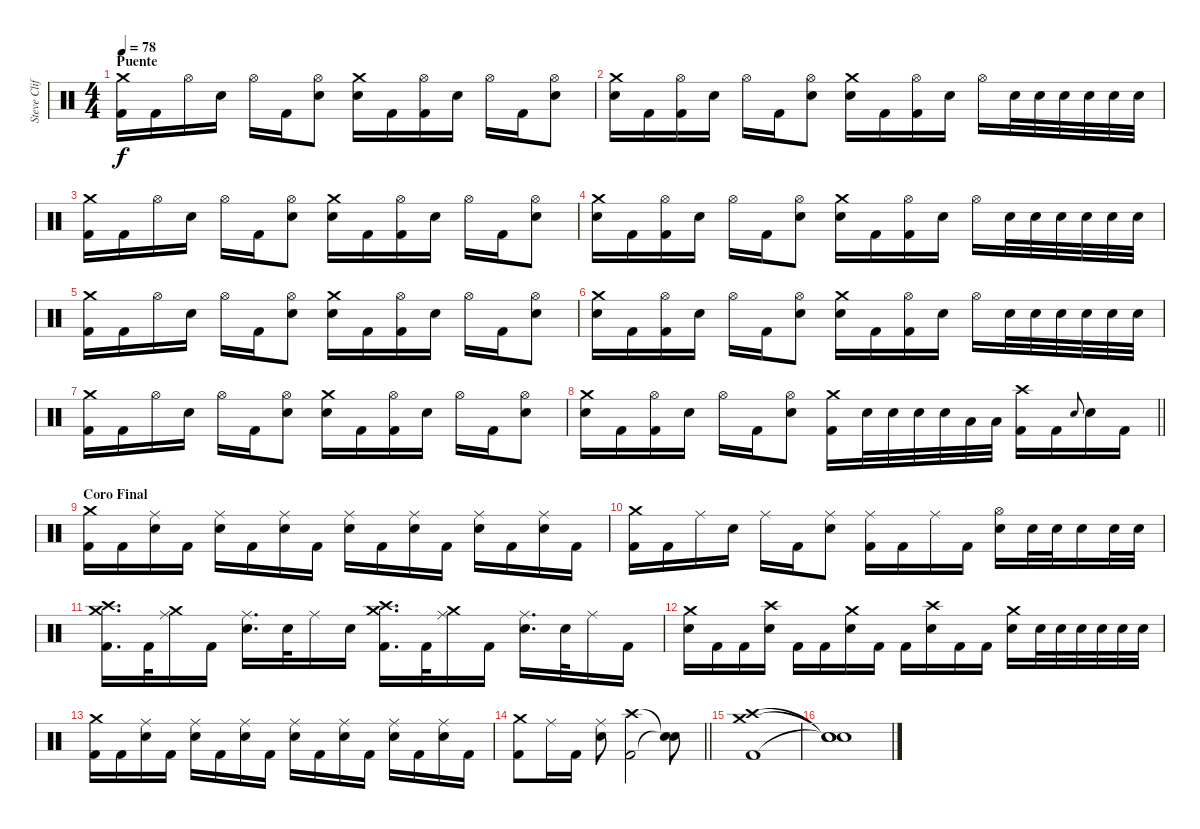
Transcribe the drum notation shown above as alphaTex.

\track ("Steve Clifford" "Steve Clif") {instrument percussion}
\staff
\articulation defaults
\ts (4 4)
\section ("" "Puente")
\tempo 78
\clef neutral
\ks c
("Crash medium (hit)" "Kick (hit) 2").16{dy f} "Kick (hit) 2".16 "Hi-Hat (open)".16 "Electric Snare (hit)".16 "Hi-Hat (open)".16 "Kick (hit) 2".16 ("Hi-Hat (open)" "Electric Snare (hit)").8 ("Crash medium (hit)" "Electric Snare (hit)").16 "Kick (hit) 2".16 ("Hi-Hat (open)" "Kick (hit) 2").16 "Electric Snare (hit)".16 "Hi-Hat (open)".16 "Kick (hit) 2".16 ("Hi-Hat (open)" "Electric Snare (hit)").8 |
("Crash medium (hit)" "Electric Snare (hit)").16 "Kick (hit) 2".16 ("Hi-Hat (open)" "Kick (hit) 2").16 "Electric Snare (hit)".16 "Hi-Hat (open)".16 "Kick (hit) 2".16 ("Hi-Hat (open)" "Electric Snare (hit)").8 ("Crash medium (hit)" "Electric Snare (hit)").16 "Kick (hit) 2".16 ("Hi-Hat (open)" "Kick (hit) 2").16 "Electric Snare (hit)".16 "Hi-Hat (open)".16 "Electric Snare (hit)".32 "Electric Snare (hit)".32 "Electric Snare (hit)".32 "Electric Snare (hit)".32 "Electric Snare (hit)".32 "Electric Snare (hit)".32 |
("Crash medium (hit)" "Kick (hit) 2").16 "Kick (hit) 2".16 "Hi-Hat (open)".16 "Electric Snare (hit)".16 "Hi-Hat (open)".16 "Kick (hit) 2".16 ("Hi-Hat (open)" "Electric Snare (hit)").8 ("Crash medium (hit)" "Electric Snare (hit)").16 "Kick (hit) 2".16 ("Hi-Hat (open)" "Kick (hit) 2").16 "Electric Snare (hit)".16 "Hi-Hat (open)".16 "Kick (hit) 2".16 ("Hi-Hat (open)" "Electric Snare (hit)").8 |
("Crash medium (hit)" "Electric Snare (hit)").16 "Kick (hit) 2".16 ("Hi-Hat (open)" "Kick (hit) 2").16 "Electric Snare (hit)".16 "Hi-Hat (open)".16 "Kick (hit) 2".16 ("Hi-Hat (open)" "Electric Snare (hit)").8 ("Crash medium (hit)" "Electric Snare (hit)").16 "Kick (hit) 2".16 ("Hi-Hat (open)" "Kick (hit) 2").16 "Electric Snare (hit)".16 "Hi-Hat (open)".16 "Electric Snare (hit)".32 "Electric Snare (hit)".32 "Electric Snare (hit)".32 "Electric Snare (hit)".32 "Electric Snare (hit)".32 "Electric Snare (hit)".32 |
("Crash medium (hit)" "Kick (hit) 2").16 "Kick (hit) 2".16 "Hi-Hat (open)".16 "Electric Snare (hit)".16 "Hi-Hat (open)".16 "Kick (hit) 2".16 ("Hi-Hat (open)" "Electric Snare (hit)").8 ("Crash medium (hit)" "Electric Snare (hit)").16 "Kick (hit) 2".16 ("Hi-Hat (open)" "Kick (hit) 2").16 "Electric Snare (hit)".16 "Hi-Hat (open)".16 "Kick (hit) 2".16 ("Hi-Hat (open)" "Electric Snare (hit)").8 |
("Crash medium (hit)" "Electric Snare (hit)").16 "Kick (hit) 2".16 ("Hi-Hat (open)" "Kick (hit) 2").16 "Electric Snare (hit)".16 "Hi-Hat (open)".16 "Kick (hit) 2".16 ("Hi-Hat (open)" "Electric Snare (hit)").8 ("Crash medium (hit)" "Electric Snare (hit)").16 "Kick (hit) 2".16 ("Hi-Hat (open)" "Kick (hit) 2").16 "Electric Snare (hit)".16 "Hi-Hat (open)".16 "Electric Snare (hit)".32 "Electric Snare (hit)".32 "Electric Snare (hit)".32 "Electric Snare (hit)".32 "Electric Snare (hit)".32 "Electric Snare (hit)".32 |
("Crash medium (hit)" "Kick (hit) 2").16 "Kick (hit) 2".16 "Hi-Hat (open)".16 "Electric Snare (hit)".16 "Hi-Hat (open)".16 "Kick (hit) 2".16 ("Hi-Hat (open)" "Electric Snare (hit)").8 ("Crash medium (hit)" "Electric Snare (hit)").16 "Kick (hit) 2".16 ("Hi-Hat (open)" "Kick (hit) 2").16 "Electric Snare (hit)".16 "Hi-Hat (open)".16 "Kick (hit) 2".16 ("Hi-Hat (open)" "Electric Snare (hit)").8 |
\barLineRight lightlight
("Crash medium (hit)" "Electric Snare (hit)").16 "Kick (hit) 2".16 ("Hi-Hat (open)" "Kick (hit) 2").16 "Electric Snare (hit)".16 "Hi-Hat (open)".16 "Kick (hit) 2".16 ("Hi-Hat (open)" "Electric Snare (hit)").8 ("Crash medium (hit)" "Kick (hit) 2").16 "Electric Snare (hit)".32 "Electric Snare (hit)".32 "Electric Snare (hit)".32 "Electric Snare (hit)".32 "Low Tom (hit)".32 "Low Tom (hit)".32 ("Crash high (hit)" "Kick (hit) 2").16 "Kick (hit) 2".16 "Electric Snare (hit)".8{gr onbeat} "Electric Snare (hit)".16 "Kick (hit) 2".16 |
\section ("" "Coro Final")
("Crash medium (hit)" "Kick (hit) 2").16 "Kick (hit) 2".16 ("Ride (middle)" "Electric Snare (hit)").16 "Kick (hit) 2".16 ("Ride (middle)" "Electric Snare (hit)").16 "Kick (hit) 2".16 ("Ride (middle)" "Electric Snare (hit)").16 "Kick (hit) 2".16 ("Ride (middle)" "Electric Snare (hit)").16 "Kick (hit) 2".16 ("Ride (middle)" "Electric Snare (hit)").16 "Kick (hit) 2".16 ("Ride (middle)" "Electric Snare (hit)").16 "Kick (hit) 2".16 ("Ride (middle)" "Electric Snare (hit)").16 "Kick (hit) 2".16 |
("Crash medium (hit)" "Kick (hit) 2").16 "Kick (hit) 2".16 "Ride (middle)".16 "Electric Snare (hit)".16 "Ride (middle)".16 "Kick (hit) 2".16 ("Ride (middle)" "Electric Snare (hit)").8 ("Ride (middle)" "Kick (hit) 2").16 "Kick (hit) 2".16 "Ride (middle)".16 "Kick (hit) 2".16 ("Hi-Hat (open)" "Electric Snare (hit)").16 "Electric Snare (hit)".32 "Electric Snare (hit)".32 "Electric Snare (hit)".16 "Electric Snare (hit)".32 "Electric Snare (hit)".32 |
("Crash medium (hit)" "Crash high (hit)" "Kick (hit) 2").16{d} "Kick (hit) 2".32 ("Crash medium (hit)" "Ride (middle)").16 "Kick (hit) 2".16 ("Ride (middle)" "Electric Snare (hit)").16{d} "Electric Snare (hit)".32 "Ride (middle)".16 "Electric Snare (hit)".16 ("Crash medium (hit)" "Crash high (hit)" "Kick (hit) 2").16{d} "Kick (hit) 2".32 ("Crash medium (hit)" "Ride (middle)").16 "Kick (hit) 2".16 ("Ride (middle)" "Electric Snare (hit)").16{d} "Electric Snare (hit)".32 "Ride (middle)".16 "Kick (hit) 2".16 |
("Crash medium (hit)" "Electric Snare (hit)").16 "Kick (hit) 2".16 "Kick (hit) 2".16 ("Crash high (hit)" "Electric Snare (hit)").16 "Kick (hit) 2".16 "Kick (hit) 2".16 ("Crash medium (hit)" "Electric Snare (hit)").16 "Kick (hit) 2".16 "Kick (hit) 2".16 ("Crash high (hit)" "Electric Snare (hit)").16 "Kick (hit) 2".16 "Kick (hit) 2".16 ("Crash medium (hit)" "Electric Snare (hit)").16 "Electric Snare (hit)".32 "Electric Snare (hit)".32 "Electric Snare (hit)".32 "Electric Snare (hit)".32 "Electric Snare (hit)".32 "Electric Snare (hit)".32 |
("Crash medium (hit)" "Kick (hit) 2").16 "Kick (hit) 2".16 ("Ride (middle)" "Electric Snare (hit)").16 "Kick (hit) 2".16 ("Ride (middle)" "Electric Snare (hit)").16 "Kick (hit) 2".16 ("Ride (middle)" "Electric Snare (hit)").16 "Kick (hit) 2".16 ("Ride (middle)" "Electric Snare (hit)").16 "Kick (hit) 2".16 ("Ride (middle)" "Electric Snare (hit)").16 "Kick (hit) 2".16 ("Ride (middle)" "Electric Snare (hit)").16 "Kick (hit) 2".16 ("Ride (middle)" "Electric Snare (hit)").16 "Kick (hit) 2".16 |
\barLineRight lightlight
("Crash medium (hit)" "Kick (hit) 2").8 "Ride (middle)".16 "Kick (hit) 2".16 ("Ride (middle)" "Electric Snare (hit)").8 ("Crash high (hit)" "Kick (hit) 2").2 ("Snare (hit)"{t} "Snare (hit)"{t}).8 |
("Crash medium (hit)" "Crash high (hit)" "Kick (hit) 2").1 |
("Snare (hit)"{t} "Snare (hit)"{t} "Snare (hit)"{t}).1
